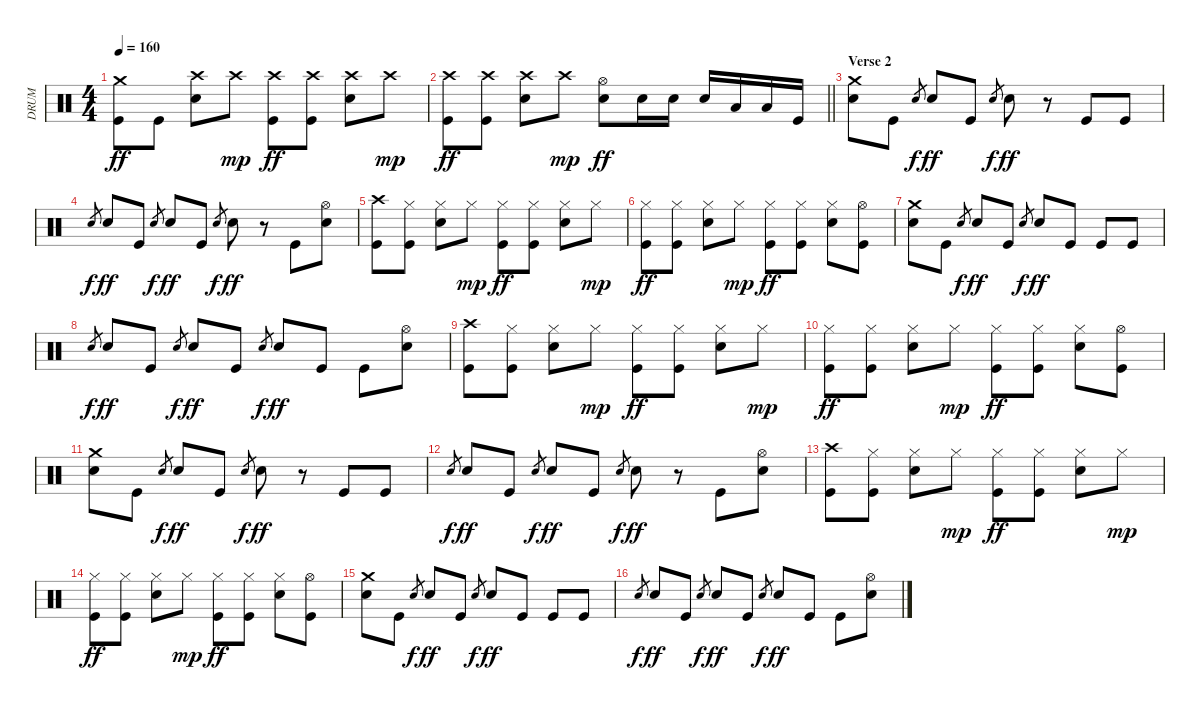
\track ("DRUM" "DRUM") {instrument percussion}
\staff {score}
\articulation defaults
\ts (4 4)
\tempo 160
\clef neutral
\ks c
("Crash medium (hit)" "Kick (hit)").8{dy ff} "Kick (hit)".8 ("Crash high (hit)" "Electric Snare (hit)").8 "Crash high (hit)".8{dy mp} ("Crash high (hit)" "Kick (hit)").8{dy ff} ("Crash high (hit)" "Kick (hit)").8 ("Crash high (hit)" "Electric Snare (hit)").8 "Crash high (hit)".8{dy mp} |
\barLineRight lightlight
("Crash high (hit)" "Kick (hit)").8{dy ff} ("Crash high (hit)" "Kick (hit)").8 ("Crash high (hit)" "Electric Snare (hit)").8 "Crash high (hit)".8{dy mp} ("Hi-Hat (open)" "Electric Snare (hit)").8{dy ff} "Electric Snare (hit)".16 "Electric Snare (hit)".16 "Electric Snare (hit)".16 "Low Tom (hit)".16 "Low Tom (hit)".16 "Kick (hit)".16 |
\section ("" "Verse 2")
("Crash medium (hit)" "Electric Snare (hit)").8 "Kick (hit)".8 "Electric Snare (hit)".8{gr dy f} "Electric Snare (hit)".8{dy ff} "Kick (hit)".8 "Electric Snare (hit)".8{gr dy f} "Electric Snare (hit)".8{dy ff} r.8 "Kick (hit)".8 "Kick (hit)".8 |
"Electric Snare (hit)".8{gr dy f} "Electric Snare (hit)".8{dy ff} "Kick (hit)".8 "Electric Snare (hit)".8{gr dy f} "Electric Snare (hit)".8{dy ff} "Kick (hit)".8 "Electric Snare (hit)".8{gr dy f} "Electric Snare (hit)".8{dy ff} r.8 "Kick (hit)".8 ("Hi-Hat (open)" "Electric Snare (hit)").8 |
("Crash high (hit)" "Kick (hit)").8 ("Hi-Hat (closed)" "Kick (hit)").8 ("Hi-Hat (closed)" "Electric Snare (hit)").8 "Hi-Hat (closed)".8{dy mp} ("Hi-Hat (closed)" "Kick (hit)").8{dy ff} ("Hi-Hat (closed)" "Kick (hit)").8 ("Hi-Hat (closed)" "Electric Snare (hit)").8 "Hi-Hat (closed)".8{dy mp} |
("Hi-Hat (closed)" "Kick (hit)").8{dy ff} ("Hi-Hat (closed)" "Kick (hit)").8 ("Hi-Hat (closed)" "Electric Snare (hit)").8 "Hi-Hat (closed)".8{dy mp} ("Hi-Hat (closed)" "Kick (hit)").8{dy ff} ("Hi-Hat (closed)" "Kick (hit)").8 ("Hi-Hat (closed)" "Electric Snare (hit)").8 ("Hi-Hat (open)" "Kick (hit)").8 |
("Crash medium (hit)" "Electric Snare (hit)").8 "Kick (hit)".8 "Electric Snare (hit)".8{gr dy f} "Electric Snare (hit)".8{dy ff} "Kick (hit)".8 "Electric Snare (hit)".8{gr dy f} "Electric Snare (hit)".8{dy ff} "Kick (hit)".8 "Kick (hit)".8 "Kick (hit)".8 |
"Electric Snare (hit)".8{gr dy f} "Electric Snare (hit)".8{dy ff} "Kick (hit)".8 "Electric Snare (hit)".8{gr dy f} "Electric Snare (hit)".8{dy ff} "Kick (hit)".8 "Electric Snare (hit)".8{gr dy f} "Electric Snare (hit)".8{dy ff} "Kick (hit)".8 "Kick (hit)".8 ("Hi-Hat (open)" "Electric Snare (hit)").8 |
("Crash high (hit)" "Kick (hit)").8 ("Hi-Hat (closed)" "Kick (hit)").8 ("Hi-Hat (closed)" "Electric Snare (hit)").8 "Hi-Hat (closed)".8{dy mp} ("Hi-Hat (closed)" "Kick (hit)").8{dy ff} ("Hi-Hat (closed)" "Kick (hit)").8 ("Hi-Hat (closed)" "Electric Snare (hit)").8 "Hi-Hat (closed)".8{dy mp} |
("Hi-Hat (closed)" "Kick (hit)").8{dy ff} ("Hi-Hat (closed)" "Kick (hit)").8 ("Hi-Hat (closed)" "Electric Snare (hit)").8 "Hi-Hat (closed)".8{dy mp} ("Hi-Hat (closed)" "Kick (hit)").8{dy ff} ("Hi-Hat (closed)" "Kick (hit)").8 ("Hi-Hat (closed)" "Electric Snare (hit)").8 ("Hi-Hat (open)" "Kick (hit)").8 |
("Crash medium (hit)" "Electric Snare (hit)").8 "Kick (hit)".8 "Electric Snare (hit)".8{gr dy f} "Electric Snare (hit)".8{dy ff} "Kick (hit)".8 "Electric Snare (hit)".8{gr dy f} "Electric Snare (hit)".8{dy ff} r.8 "Kick (hit)".8 "Kick (hit)".8 |
"Electric Snare (hit)".8{gr dy f} "Electric Snare (hit)".8{dy ff} "Kick (hit)".8 "Electric Snare (hit)".8{gr dy f} "Electric Snare (hit)".8{dy ff} "Kick (hit)".8 "Electric Snare (hit)".8{gr dy f} "Electric Snare (hit)".8{dy ff} r.8 "Kick (hit)".8 ("Hi-Hat (open)" "Electric Snare (hit)").8 |
("Crash high (hit)" "Kick (hit)").8 ("Hi-Hat (closed)" "Kick (hit)").8 ("Hi-Hat (closed)" "Electric Snare (hit)").8 "Hi-Hat (closed)".8{dy mp} ("Hi-Hat (closed)" "Kick (hit)").8{dy ff} ("Hi-Hat (closed)" "Kick (hit)").8 ("Hi-Hat (closed)" "Electric Snare (hit)").8 "Hi-Hat (closed)".8{dy mp} |
("Hi-Hat (closed)" "Kick (hit)").8{dy ff} ("Hi-Hat (closed)" "Kick (hit)").8 ("Hi-Hat (closed)" "Electric Snare (hit)").8 "Hi-Hat (closed)".8{dy mp} ("Hi-Hat (closed)" "Kick (hit)").8{dy ff} ("Hi-Hat (closed)" "Kick (hit)").8 ("Hi-Hat (closed)" "Electric Snare (hit)").8 ("Hi-Hat (open)" "Kick (hit)").8 |
("Crash medium (hit)" "Electric Snare (hit)").8 "Kick (hit)".8 "Electric Snare (hit)".8{gr dy f} "Electric Snare (hit)".8{dy ff} "Kick (hit)".8 "Electric Snare (hit)".8{gr dy f} "Electric Snare (hit)".8{dy ff} "Kick (hit)".8 "Kick (hit)".8 "Kick (hit)".8 |
"Electric Snare (hit)".8{gr dy f} "Electric Snare (hit)".8{dy ff} "Kick (hit)".8 "Electric Snare (hit)".8{gr dy f} "Electric Snare (hit)".8{dy ff} "Kick (hit)".8 "Electric Snare (hit)".8{gr dy f} "Electric Snare (hit)".8{dy ff} "Kick (hit)".8 "Kick (hit)".8 ("Hi-Hat (open)" "Electric Snare (hit)").8
